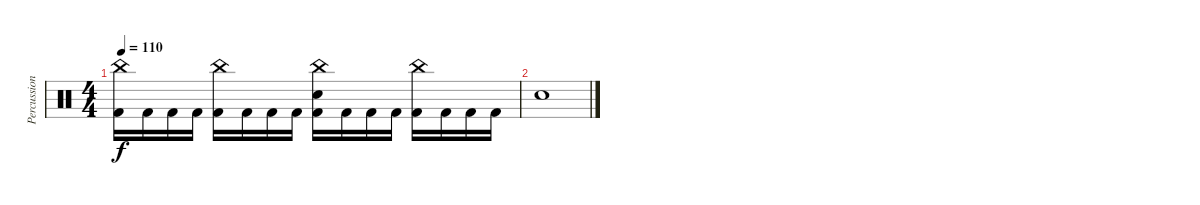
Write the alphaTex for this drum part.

\track ("Percussion" "Percussion") {instrument percussion}
\staff {score}
\articulation defaults
\ts (4 4)
\tempo 110
\clef neutral
\ks c
("China (hit)" "Kick (hit) 2").16{dy f} "Kick (hit) 2".16 "Kick (hit) 2".16 "Kick (hit) 2".16 ("China (hit)" "Kick (hit) 2").16 "Kick (hit) 2".16 "Kick (hit) 2".16 "Kick (hit) 2".16 ("China (hit)" "Electric Snare (hit)" "Kick (hit) 2").16 "Kick (hit) 2".16 "Kick (hit) 2".16 "Kick (hit) 2".16 ("China (hit)" "Kick (hit) 2").16 "Kick (hit) 2".16 "Kick (hit) 2".16 "Kick (hit) 2".16 |
"Electric Snare (hit)".1
